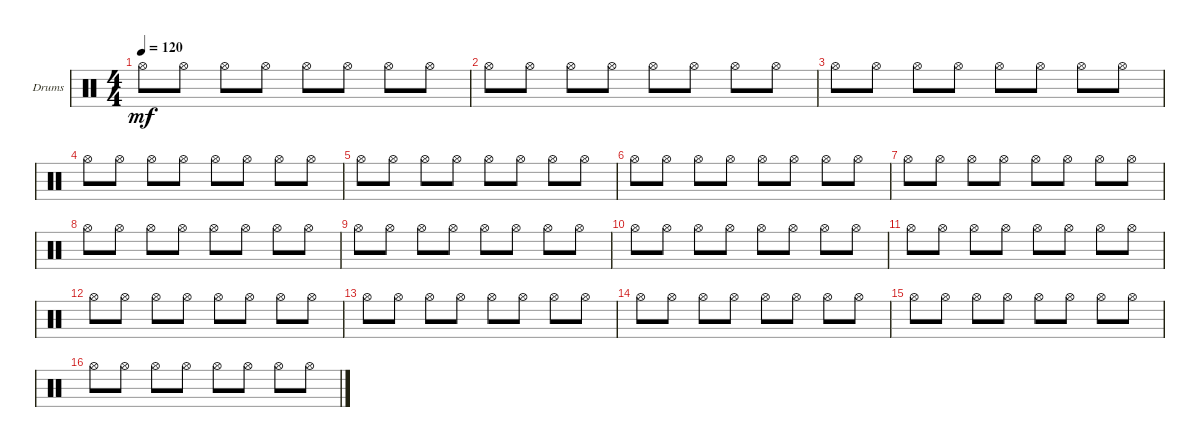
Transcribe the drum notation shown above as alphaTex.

\defaultSystemsLayout 4
\bracketExtendMode groupsimilarinstruments
\firstSystemTrackNameOrientation horizontal
\otherSystemsTrackNameOrientation horizontal
\track ("Drumkit" "Drums") {instrument percussion}
\staff {score}
\articulation defaults
\ts (4 4)
\tempo 120
\clef neutral
\scale
0.333333
\ks c "Hi-Hat (open)".8{dy mf} "Hi-Hat (open)".8 "Hi-Hat (open)".8 "Hi-Hat (open)".8 "Hi-Hat (open)".8 "Hi-Hat (open)".8 "Hi-Hat (open)".8 "Hi-Hat (open)".8
|
\scale
0.333333 "Hi-Hat (open)".8 "Hi-Hat (open)".8 "Hi-Hat (open)".8 "Hi-Hat (open)".8 "Hi-Hat (open)".8 "Hi-Hat (open)".8 "Hi-Hat (open)".8 "Hi-Hat (open)".8 |
\scale
0.333333 "Hi-Hat (open)".8 "Hi-Hat (open)".8 "Hi-Hat (open)".8 "Hi-Hat (open)".8 "Hi-Hat (open)".8 "Hi-Hat (open)".8 "Hi-Hat (open)".8 "Hi-Hat (open)".8 |
\scale
0.333333 "Hi-Hat (open)".8 "Hi-Hat (open)".8 "Hi-Hat (open)".8 "Hi-Hat (open)".8 "Hi-Hat (open)".8 "Hi-Hat (open)".8 "Hi-Hat (open)".8 "Hi-Hat (open)".8 |
\scale
0.333333 "Hi-Hat (open)".8 "Hi-Hat (open)".8 "Hi-Hat (open)".8 "Hi-Hat (open)".8 "Hi-Hat (open)".8 "Hi-Hat (open)".8 "Hi-Hat (open)".8 "Hi-Hat (open)".8 |
\scale
0.333333 "Hi-Hat (open)".8 "Hi-Hat (open)".8 "Hi-Hat (open)".8 "Hi-Hat (open)".8 "Hi-Hat (open)".8 "Hi-Hat (open)".8 "Hi-Hat (open)".8 "Hi-Hat (open)".8 |
"Hi-Hat (open)".8 "Hi-Hat (open)".8 "Hi-Hat (open)".8 "Hi-Hat (open)".8 "Hi-Hat (open)".8 "Hi-Hat (open)".8 "Hi-Hat (open)".8 "Hi-Hat (open)".8 |
"Hi-Hat (open)".8 "Hi-Hat (open)".8 "Hi-Hat (open)".8 "Hi-Hat (open)".8 "Hi-Hat (open)".8 "Hi-Hat (open)".8 "Hi-Hat (open)".8 "Hi-Hat (open)".8 |
"Hi-Hat (open)".8 "Hi-Hat (open)".8 "Hi-Hat (open)".8 "Hi-Hat (open)".8 "Hi-Hat (open)".8 "Hi-Hat (open)".8 "Hi-Hat (open)".8 "Hi-Hat (open)".8 |
"Hi-Hat (open)".8 "Hi-Hat (open)".8 "Hi-Hat (open)".8 "Hi-Hat (open)".8 "Hi-Hat (open)".8 "Hi-Hat (open)".8 "Hi-Hat (open)".8 "Hi-Hat (open)".8 |
"Hi-Hat (open)".8 "Hi-Hat (open)".8 "Hi-Hat (open)".8 "Hi-Hat (open)".8 "Hi-Hat (open)".8 "Hi-Hat (open)".8 "Hi-Hat (open)".8 "Hi-Hat (open)".8 |
"Hi-Hat (open)".8 "Hi-Hat (open)".8 "Hi-Hat (open)".8 "Hi-Hat (open)".8 "Hi-Hat (open)".8 "Hi-Hat (open)".8 "Hi-Hat (open)".8 "Hi-Hat (open)".8 |
"Hi-Hat (open)".8 "Hi-Hat (open)".8 "Hi-Hat (open)".8 "Hi-Hat (open)".8 "Hi-Hat (open)".8 "Hi-Hat (open)".8 "Hi-Hat (open)".8 "Hi-Hat (open)".8 |
"Hi-Hat (open)".8 "Hi-Hat (open)".8 "Hi-Hat (open)".8 "Hi-Hat (open)".8 "Hi-Hat (open)".8 "Hi-Hat (open)".8 "Hi-Hat (open)".8 "Hi-Hat (open)".8 |
"Hi-Hat (open)".8 "Hi-Hat (open)".8 "Hi-Hat (open)".8 "Hi-Hat (open)".8 "Hi-Hat (open)".8 "Hi-Hat (open)".8 "Hi-Hat (open)".8 "Hi-Hat (open)".8 |
"Hi-Hat (open)".8 "Hi-Hat (open)".8 "Hi-Hat (open)".8 "Hi-Hat (open)".8 "Hi-Hat (open)".8 "Hi-Hat (open)".8 "Hi-Hat (open)".8 "Hi-Hat (open)".8
